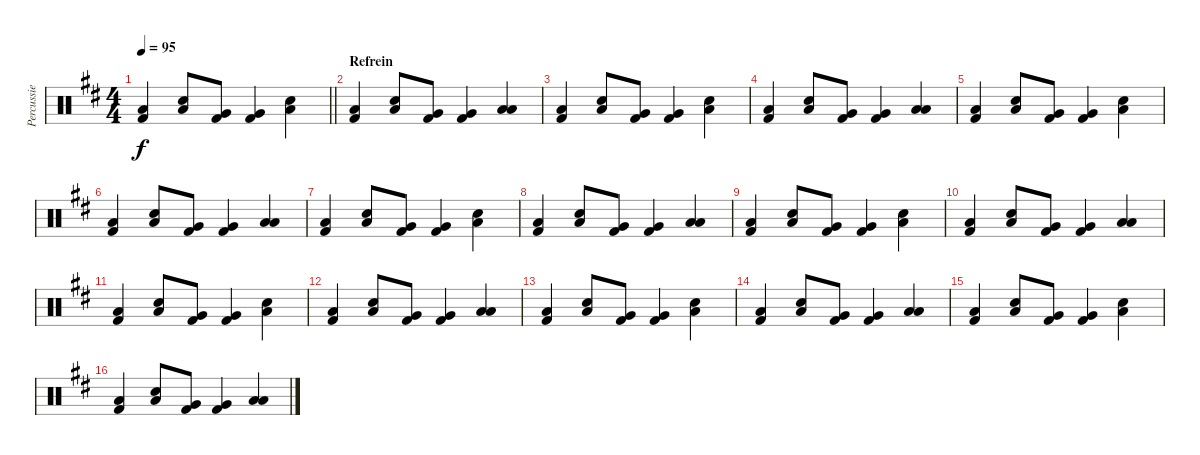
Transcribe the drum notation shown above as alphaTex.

\track ("Percussie" "Percussie") {instrument percussion}
\staff {score}
\articulation defaults
\ts (4 4)
\tempo 95
\clef neutral
\barLineRight lightlight
\ks d
("Low Tom (hit)" "Kick (hit) 2").4{dy f} ("Electric Snare (hit)" "Low Tom (hit)").8 ("Very Low Tom (hit)" "Kick (hit) 2").8 ("Very Low Tom (hit)" "Kick (hit) 2").4 ("Electric Snare (hit)" "Low Tom (hit)").4 |
\section ("" "Refrein")
("Low Tom (hit)" "Kick (hit) 2").4 ("Electric Snare (hit)" "Low Floor Tom (hit)").8 ("Very Low Tom (hit)" "Kick (hit) 2").8 ("Very Low Tom (hit)" "Kick (hit) 2").4 ("Low Tom (hit)" "Low Floor Tom (hit)").4 |
("Low Tom (hit)" "Kick (hit) 2").4 ("Electric Snare (hit)" "Low Tom (hit)").8 ("Very Low Tom (hit)" "Kick (hit) 2").8 ("Very Low Tom (hit)" "Kick (hit) 2").4 ("Electric Snare (hit)" "Low Tom (hit)").4 |
("Low Tom (hit)" "Kick (hit) 2").4 ("Electric Snare (hit)" "Low Floor Tom (hit)").8 ("Very Low Tom (hit)" "Kick (hit) 2").8 ("Very Low Tom (hit)" "Kick (hit) 2").4 ("Low Tom (hit)" "Low Floor Tom (hit)").4 |
("Low Tom (hit)" "Kick (hit) 2").4 ("Electric Snare (hit)" "Low Tom (hit)").8 ("Very Low Tom (hit)" "Kick (hit) 2").8 ("Very Low Tom (hit)" "Kick (hit) 2").4 ("Electric Snare (hit)" "Low Tom (hit)").4 |
("Low Tom (hit)" "Kick (hit) 2").4 ("Electric Snare (hit)" "Low Floor Tom (hit)").8 ("Very Low Tom (hit)" "Kick (hit) 2").8 ("Very Low Tom (hit)" "Kick (hit) 2").4 ("Low Tom (hit)" "Low Floor Tom (hit)").4 |
("Low Tom (hit)" "Kick (hit) 2").4 ("Electric Snare (hit)" "Low Tom (hit)").8 ("Very Low Tom (hit)" "Kick (hit) 2").8 ("Very Low Tom (hit)" "Kick (hit) 2").4 ("Electric Snare (hit)" "Low Tom (hit)").4 |
("Low Tom (hit)" "Kick (hit) 2").4 ("Electric Snare (hit)" "Low Floor Tom (hit)").8 ("Very Low Tom (hit)" "Kick (hit) 2").8 ("Very Low Tom (hit)" "Kick (hit) 2").4 ("Low Tom (hit)" "Low Floor Tom (hit)").4 |
("Low Tom (hit)" "Kick (hit) 2").4 ("Electric Snare (hit)" "Low Tom (hit)").8 ("Very Low Tom (hit)" "Kick (hit) 2").8 ("Very Low Tom (hit)" "Kick (hit) 2").4 ("Electric Snare (hit)" "Low Tom (hit)").4 |
("Low Tom (hit)" "Kick (hit) 2").4 ("Electric Snare (hit)" "Low Floor Tom (hit)").8 ("Very Low Tom (hit)" "Kick (hit) 2").8 ("Very Low Tom (hit)" "Kick (hit) 2").4 ("Low Tom (hit)" "Low Floor Tom (hit)").4 |
("Low Tom (hit)" "Kick (hit) 2").4 ("Electric Snare (hit)" "Low Tom (hit)").8 ("Very Low Tom (hit)" "Kick (hit) 2").8 ("Very Low Tom (hit)" "Kick (hit) 2").4 ("Electric Snare (hit)" "Low Tom (hit)").4 |
("Low Tom (hit)" "Kick (hit) 2").4 ("Electric Snare (hit)" "Low Floor Tom (hit)").8 ("Very Low Tom (hit)" "Kick (hit) 2").8 ("Very Low Tom (hit)" "Kick (hit) 2").4 ("Low Tom (hit)" "Low Floor Tom (hit)").4 |
("Low Tom (hit)" "Kick (hit) 2").4 ("Electric Snare (hit)" "Low Tom (hit)").8 ("Very Low Tom (hit)" "Kick (hit) 2").8 ("Very Low Tom (hit)" "Kick (hit) 2").4 ("Electric Snare (hit)" "Low Tom (hit)").4 |
("Low Tom (hit)" "Kick (hit) 2").4 ("Electric Snare (hit)" "Low Floor Tom (hit)").8 ("Very Low Tom (hit)" "Kick (hit) 2").8 ("Very Low Tom (hit)" "Kick (hit) 2").4 ("Low Tom (hit)" "Low Floor Tom (hit)").4 |
("Low Tom (hit)" "Kick (hit) 2").4 ("Electric Snare (hit)" "Low Tom (hit)").8 ("Very Low Tom (hit)" "Kick (hit) 2").8 ("Very Low Tom (hit)" "Kick (hit) 2").4 ("Electric Snare (hit)" "Low Tom (hit)").4 |
("Low Tom (hit)" "Kick (hit) 2").4 ("Electric Snare (hit)" "Low Floor Tom (hit)").8 ("Very Low Tom (hit)" "Kick (hit) 2").8 ("Very Low Tom (hit)" "Kick (hit) 2").4 ("Low Tom (hit)" "Low Floor Tom (hit)").4
